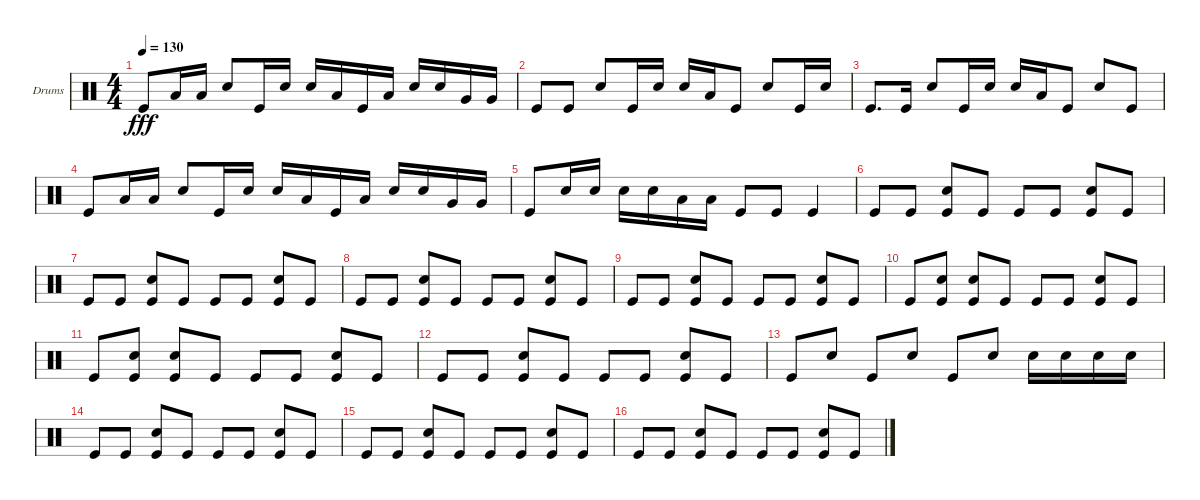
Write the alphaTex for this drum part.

\defaultSystemsLayout 4
\bracketExtendMode groupsimilarinstruments
\firstSystemTrackNameOrientation horizontal
\otherSystemsTrackNameOrientation horizontal
\track ("Helders" "Drums") {instrument percussion}
\staff {score}
\articulation defaults
\ts (4 4)
\tempo 130
\clef neutral
\ks c "Kick (hit)".8{dy fff} "Low Tom (hit)".16 "Low Tom (hit)".16 "Snare (hit) 2".8 "Kick (hit)".16 "Snare (hit) 2".16 "Snare (hit) 2".16 "Low Tom (hit)".16 "Kick (hit)".16 "Low Tom (hit)".16 "Snare (hit) 2".16 "Snare (hit) 2".16 "Very Low Tom (hit)".16 "Very Low Tom (hit)".16
|
"Kick (hit)".8 "Kick (hit)".8 "Snare (hit) 2".8 "Kick (hit)".16 "Snare (hit) 2".16 "Snare (hit) 2".16 "Low Tom (hit)".16 "Kick (hit)".8 "Snare (hit) 2".8 "Kick (hit)".16 "Snare (hit) 2".16 |
"Kick (hit)".8{d} "Kick (hit)".16 "Snare (hit) 2".8 "Kick (hit)".16 "Snare (hit) 2".16 "Snare (hit) 2".16 "Low Tom (hit)".16 "Kick (hit)".8 "Snare (hit) 2".8 "Kick (hit)".8 |
"Kick (hit)".8 "Low Tom (hit)".16 "Low Tom (hit)".16 "Snare (hit) 2".8 "Kick (hit)".16 "Snare (hit) 2".16 "Snare (hit) 2".16 "Low Tom (hit)".16 "Kick (hit)".16 "Low Tom (hit)".16 "Snare (hit) 2".16 "Snare (hit) 2".16 "Very Low Tom (hit)".16 "Very Low Tom (hit)".16 |
"Kick (hit)".8 "Snare (hit) 2".16 "Snare (hit) 2".16 "Snare (hit) 2".16 "Snare (hit) 2".16 "Low Tom (hit)".16 "Low Tom (hit)".16 "Kick (hit)".8 "Kick (hit)".8 "Kick (hit)".4 |
"Kick (hit)".8 "Kick (hit)".8 ("Kick (hit)" "Snare (hit) 2").8 "Kick (hit)".8 "Kick (hit)".8 "Kick (hit)".8 ("Kick (hit)" "Snare (hit) 2").8 "Kick (hit)".8 |
"Kick (hit)".8 "Kick (hit)".8 ("Kick (hit)" "Snare (hit) 2").8 "Kick (hit)".8 "Kick (hit)".8 "Kick (hit)".8 ("Kick (hit)" "Snare (hit) 2").8 "Kick (hit)".8 |
"Kick (hit)".8 "Kick (hit)".8 ("Kick (hit)" "Snare (hit) 2").8 "Kick (hit)".8 "Kick (hit)".8 "Kick (hit)".8 ("Kick (hit)" "Snare (hit) 2").8 "Kick (hit)".8 |
"Kick (hit)".8 "Kick (hit)".8 ("Kick (hit)" "Snare (hit) 2").8 "Kick (hit)".8 "Kick (hit)".8 "Kick (hit)".8 ("Kick (hit)" "Snare (hit) 2").8 "Kick (hit)".8 |
"Kick (hit)".8 ("Kick (hit)" "Snare (hit) 2").8 ("Kick (hit)" "Snare (hit) 2").8 "Kick (hit)".8 "Kick (hit)".8 "Kick (hit)".8 ("Kick (hit)" "Snare (hit) 2").8 "Kick (hit)".8 |
"Kick (hit)".8 ("Kick (hit)" "Snare (hit) 2").8 ("Kick (hit)" "Snare (hit) 2").8 "Kick (hit)".8 "Kick (hit)".8 "Kick (hit)".8 ("Kick (hit)" "Snare (hit) 2").8 "Kick (hit)".8 |
"Kick (hit)".8 "Kick (hit)".8 ("Kick (hit)" "Snare (hit) 2").8 "Kick (hit)".8 "Kick (hit)".8 "Kick (hit)".8 ("Kick (hit)" "Snare (hit) 2").8 "Kick (hit)".8 |
"Kick (hit)".8 "Snare (hit) 2".8 "Kick (hit)".8 "Snare (hit) 2".8 "Kick (hit)".8 "Snare (hit) 2".8 "Snare (hit) 2".16 "Snare (hit) 2".16 "Snare (hit) 2".16 "Snare (hit) 2".16 |
"Kick (hit)".8 "Kick (hit)".8 ("Kick (hit)" "Snare (hit) 2").8 "Kick (hit)".8 "Kick (hit)".8 "Kick (hit)".8 ("Kick (hit)" "Snare (hit) 2").8 "Kick (hit)".8 |
"Kick (hit)".8 "Kick (hit)".8 ("Kick (hit)" "Snare (hit) 2").8 "Kick (hit)".8 "Kick (hit)".8 "Kick (hit)".8 ("Kick (hit)" "Snare (hit) 2").8 "Kick (hit)".8 |
"Kick (hit)".8 "Kick (hit)".8 ("Kick (hit)" "Snare (hit) 2").8 "Kick (hit)".8 "Kick (hit)".8 "Kick (hit)".8 ("Kick (hit)" "Snare (hit) 2").8 "Kick (hit)".8
